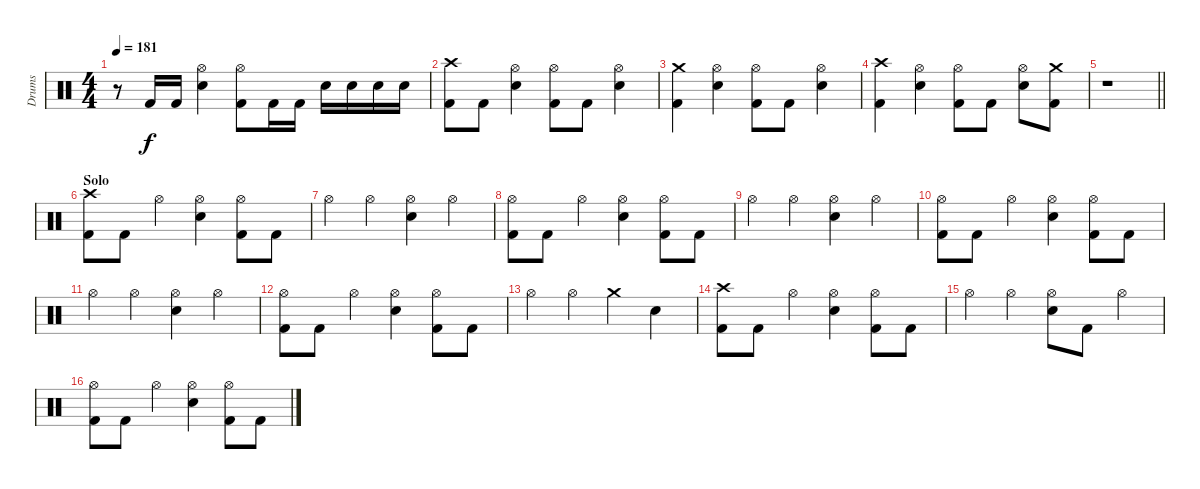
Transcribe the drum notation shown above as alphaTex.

\track ("Drums" "Drums") {instrument percussion}
\staff {score}
\articulation defaults
\ts (4 4)
\tempo 181
\clef neutral
\ks c
r.8{dy f} "Kick (hit) 2".16 "Kick (hit) 2".16 ("Hi-Hat (open)" "Snare (hit) 2").4 ("Hi-Hat (open)" "Kick (hit) 2").8 "Kick (hit) 2".16 "Kick (hit) 2".16 "Snare (hit) 2".16 "Snare (hit) 2".16 "Snare (hit) 2".16 "Snare (hit) 2".16 |
("Crash high (hit)" "Kick (hit) 2").8 "Kick (hit) 2".8 ("Hi-Hat (open)" "Snare (hit) 2").4 ("Hi-Hat (open)" "Kick (hit) 2").8 "Kick (hit) 2".8 ("Hi-Hat (open)" "Snare (hit) 2").4 |
("Crash medium (hit)" "Kick (hit) 2").4 ("Hi-Hat (open)" "Snare (hit) 2").4 ("Hi-Hat (open)" "Kick (hit) 2").8 "Kick (hit) 2".8 ("Hi-Hat (open)" "Snare (hit) 2").4 |
("Crash high (hit)" "Kick (hit) 2").4 ("Hi-Hat (open)" "Snare (hit) 2").4 ("Hi-Hat (open)" "Kick (hit) 2").8 "Kick (hit) 2".8 ("Hi-Hat (open)" "Snare (hit) 2").8 ("Crash medium (hit)" "Kick (hit) 2").8 |
\barLineRight lightlight
r.1 |
\section ("" "Solo")
("Crash high (hit)" "Kick (hit) 2").8 "Kick (hit) 2".8 "Hi-Hat (open)".4 ("Hi-Hat (open)" "Snare (hit) 2").4 ("Hi-Hat (open)" "Kick (hit) 2").8 "Kick (hit) 2".8 |
"Hi-Hat (open)".4 "Hi-Hat (open)".4 ("Hi-Hat (open)" "Snare (hit) 2").4 "Hi-Hat (open)".4 |
("Hi-Hat (open)" "Kick (hit) 2").8 "Kick (hit) 2".8 "Hi-Hat (open)".4 ("Hi-Hat (open)" "Snare (hit) 2").4 ("Hi-Hat (open)" "Kick (hit) 2").8 "Kick (hit) 2".8 |
"Hi-Hat (open)".4 "Hi-Hat (open)".4 ("Hi-Hat (open)" "Snare (hit) 2").4 "Hi-Hat (open)".4 |
("Hi-Hat (open)" "Kick (hit) 2").8 "Kick (hit) 2".8 "Hi-Hat (open)".4 ("Hi-Hat (open)" "Snare (hit) 2").4 ("Hi-Hat (open)" "Kick (hit) 2").8 "Kick (hit) 2".8 |
"Hi-Hat (open)".4 "Hi-Hat (open)".4 ("Hi-Hat (open)" "Snare (hit) 2").4 "Hi-Hat (open)".4 |
("Hi-Hat (open)" "Kick (hit) 2").8 "Kick (hit) 2".8 "Hi-Hat (open)".4 ("Hi-Hat (open)" "Snare (hit) 2").4 ("Hi-Hat (open)" "Kick (hit) 2").8 "Kick (hit) 2".8 |
"Hi-Hat (open)".4 "Hi-Hat (open)".4 "Crash medium (hit)".4 "Snare (hit) 2".4 |
("Crash high (hit)" "Kick (hit) 2").8 "Kick (hit) 2".8 "Hi-Hat (open)".4 ("Hi-Hat (open)" "Snare (hit) 2").4 ("Hi-Hat (open)" "Kick (hit) 2").8 "Kick (hit) 2".8 |
"Hi-Hat (open)".4 "Hi-Hat (open)".4 ("Hi-Hat (open)" "Snare (hit) 2").8 "Kick (hit) 2".8 "Hi-Hat (open)".4 |
("Hi-Hat (open)" "Kick (hit) 2").8 "Kick (hit) 2".8 "Hi-Hat (open)".4 ("Hi-Hat (open)" "Snare (hit) 2").4 ("Hi-Hat (open)" "Kick (hit) 2").8 "Kick (hit) 2".8
